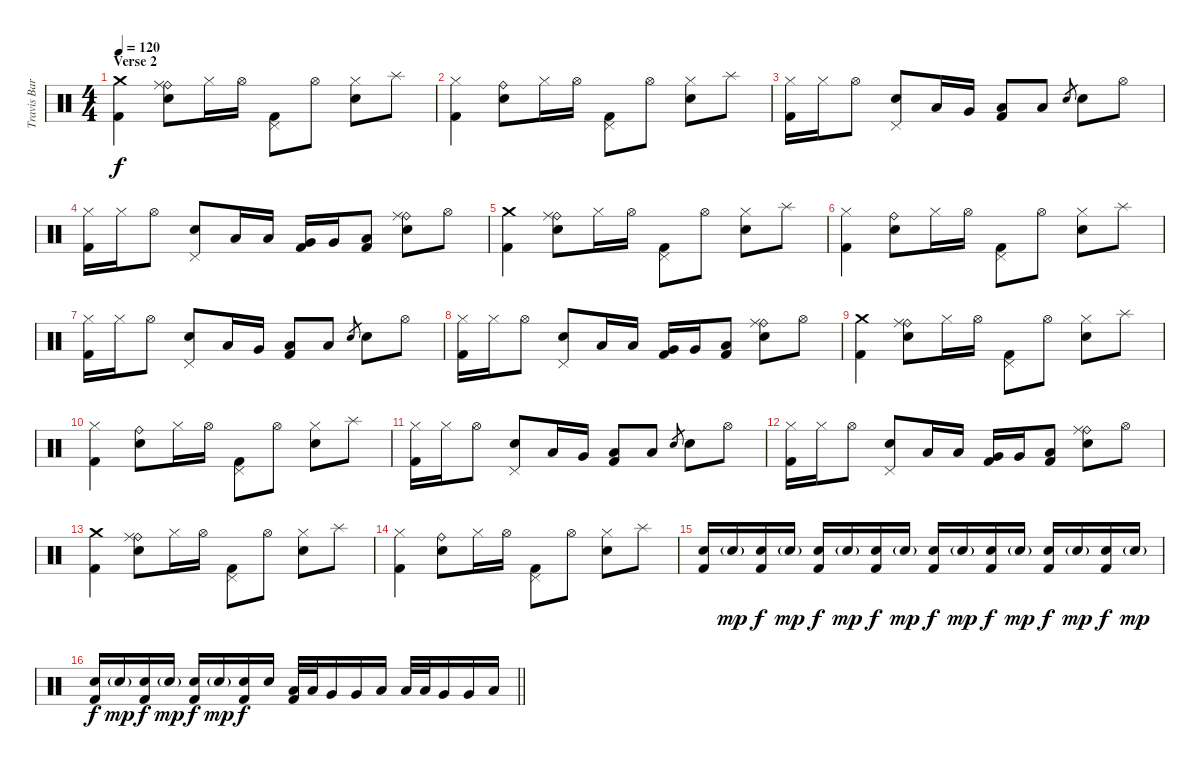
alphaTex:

\track ("Travis Barker - Drums" "Travis Bar") {instrument percussion}
\staff {score}
\articulation defaults
\ts (4 4)
\section ("" "Verse 2")
\tempo 120
\clef neutral
\ks c
("Crash medium (hit)" "Kick (hit) 2").4{dy f} ("Ride (bell)" "Ride (middle)" "Electric Snare (hit)").8 "Hi-Hat (closed)".16 "Hi-Hat (open)".16 ("Pedal Hi-Hat (hit)" "Kick (hit) 2").8 "Hi-Hat (open)".8 ("Hi-Hat (closed)" "Electric Snare (hit)").8 "Splash (hit)".8 |
("Hi-Hat (closed)" "Kick (hit) 2").4 ("Ride (bell)" "Electric Snare (hit)").8 "Hi-Hat (closed)".16 "Hi-Hat (open)".16 ("Pedal Hi-Hat (hit)" "Kick (hit) 2").8 "Hi-Hat (open)".8 ("Hi-Hat (closed)" "Electric Snare (hit)").8 "Splash (hit)".8 |
("Hi-Hat (closed)" "Kick (hit) 2").16 "Hi-Hat (closed)".16 "Hi-Hat (open)".8 ("Pedal Hi-Hat (hit)" "Electric Snare (hit)").8 "Low Tom (hit)".16 "Very Low Tom (hit)".16 ("Low Floor Tom (hit)" "Kick (hit) 2").8 "Low Floor Tom (hit)".8 "Electric Snare (hit)".8{gr} "Electric Snare (hit)".8 "Hi-Hat (open)".8 |
("Hi-Hat (closed)" "Kick (hit) 2").16 "Hi-Hat (closed)".16 "Hi-Hat (open)".8 ("Pedal Hi-Hat (hit)" "Electric Snare (hit)").8 "Low Tom (hit)".16 "Low Tom (hit)".16 ("Very Low Tom (hit)" "Kick (hit) 2").16 "Very Low Tom (hit)".16 ("Low Floor Tom (hit)" "Kick (hit) 2").8 ("Ride (bell)" "Ride (middle)" "Electric Snare (hit)").8 "Hi-Hat (open)".8 |
("Crash medium (hit)" "Kick (hit) 2").4 ("Ride (bell)" "Ride (middle)" "Electric Snare (hit)").8 "Hi-Hat (closed)".16 "Hi-Hat (open)".16 ("Pedal Hi-Hat (hit)" "Kick (hit) 2").8 "Hi-Hat (open)".8 ("Hi-Hat (closed)" "Electric Snare (hit)").8 "Splash (hit)".8 |
("Hi-Hat (closed)" "Kick (hit) 2").4 ("Ride (bell)" "Electric Snare (hit)").8 "Hi-Hat (closed)".16 "Hi-Hat (open)".16 ("Pedal Hi-Hat (hit)" "Kick (hit) 2").8 "Hi-Hat (open)".8 ("Hi-Hat (closed)" "Electric Snare (hit)").8 "Splash (hit)".8 |
("Hi-Hat (closed)" "Kick (hit) 2").16 "Hi-Hat (closed)".16 "Hi-Hat (open)".8 ("Pedal Hi-Hat (hit)" "Electric Snare (hit)").8 "Low Tom (hit)".16 "Very Low Tom (hit)".16 ("Low Floor Tom (hit)" "Kick (hit) 2").8 "Low Floor Tom (hit)".8 "Electric Snare (hit)".8{gr} "Electric Snare (hit)".8 "Hi-Hat (open)".8 |
("Hi-Hat (closed)" "Kick (hit) 2").16 "Hi-Hat (closed)".16 "Hi-Hat (open)".8 ("Pedal Hi-Hat (hit)" "Electric Snare (hit)").8 "Low Tom (hit)".16 "Low Tom (hit)".16 ("Very Low Tom (hit)" "Kick (hit) 2").16 "Very Low Tom (hit)".16 ("Low Floor Tom (hit)" "Kick (hit) 2").8 ("Ride (bell)" "Ride (middle)" "Electric Snare (hit)").8 "Hi-Hat (open)".8 |
("Crash medium (hit)" "Kick (hit) 2").4 ("Ride (bell)" "Ride (middle)" "Electric Snare (hit)").8 "Hi-Hat (closed)".16 "Hi-Hat (open)".16 ("Pedal Hi-Hat (hit)" "Kick (hit) 2").8 "Hi-Hat (open)".8 ("Hi-Hat (closed)" "Electric Snare (hit)").8 "Splash (hit)".8 |
("Hi-Hat (closed)" "Kick (hit) 2").4 ("Ride (bell)" "Electric Snare (hit)").8 "Hi-Hat (closed)".16 "Hi-Hat (open)".16 ("Pedal Hi-Hat (hit)" "Kick (hit) 2").8 "Hi-Hat (open)".8 ("Hi-Hat (closed)" "Electric Snare (hit)").8 "Splash (hit)".8 |
("Hi-Hat (closed)" "Kick (hit) 2").16 "Hi-Hat (closed)".16 "Hi-Hat (open)".8 ("Pedal Hi-Hat (hit)" "Electric Snare (hit)").8 "Low Tom (hit)".16 "Very Low Tom (hit)".16 ("Low Floor Tom (hit)" "Kick (hit) 2").8 "Low Floor Tom (hit)".8 "Electric Snare (hit)".8{gr} "Electric Snare (hit)".8 "Hi-Hat (open)".8 |
("Hi-Hat (closed)" "Kick (hit) 2").16 "Hi-Hat (closed)".16 "Hi-Hat (open)".8 ("Pedal Hi-Hat (hit)" "Electric Snare (hit)").8 "Low Tom (hit)".16 "Low Tom (hit)".16 ("Very Low Tom (hit)" "Kick (hit) 2").16 "Very Low Tom (hit)".16 ("Low Floor Tom (hit)" "Kick (hit) 2").8 ("Ride (bell)" "Ride (middle)" "Electric Snare (hit)").8 "Hi-Hat (open)".8 |
("Crash medium (hit)" "Kick (hit) 2").4 ("Ride (bell)" "Ride (middle)" "Electric Snare (hit)").8 "Hi-Hat (closed)".16 "Hi-Hat (open)".16 ("Pedal Hi-Hat (hit)" "Kick (hit) 2").8 "Hi-Hat (open)".8 ("Hi-Hat (closed)" "Electric Snare (hit)").8 "Splash (hit)".8 |
("Hi-Hat (closed)" "Kick (hit) 2").4 ("Ride (bell)" "Electric Snare (hit)").8 "Hi-Hat (closed)".16 "Hi-Hat (open)".16 ("Pedal Hi-Hat (hit)" "Kick (hit) 2").8 "Hi-Hat (open)".8 ("Hi-Hat (closed)" "Electric Snare (hit)").8 "Splash (hit)".8 |
("Electric Snare (hit)" "Kick (hit) 2").16 "Electric Snare (hit)"{g}.16{dy mp} ("Electric Snare (hit)" "Kick (hit) 2").16{dy f} "Electric Snare (hit)"{g}.16{dy mp} ("Electric Snare (hit)" "Kick (hit) 2").16{dy f} "Electric Snare (hit)"{g}.16{dy mp} ("Electric Snare (hit)" "Kick (hit) 2").16{dy f} "Electric Snare (hit)"{g}.16{dy mp} ("Electric Snare (hit)" "Kick (hit) 2").16{dy f} "Electric Snare (hit)"{g}.16{dy mp} ("Electric Snare (hit)" "Kick (hit) 2").16{dy f} "Electric Snare (hit)"{g}.16{dy mp} ("Electric Snare (hit)" "Kick (hit) 2").16{dy f} "Electric Snare (hit)"{g}.16{dy mp} ("Electric Snare (hit)" "Kick (hit) 2").16{dy f} "Electric Snare (hit)"{g}.16{dy mp} |
\barLineRight lightlight
("Electric Snare (hit)" "Kick (hit) 2").16{dy f} "Electric Snare (hit)"{g}.16{dy mp} ("Electric Snare (hit)" "Kick (hit) 2").16{dy f} "Electric Snare (hit)"{g}.16{dy mp} ("Electric Snare (hit)" "Kick (hit) 2").16{dy f} "Electric Snare (hit)"{g}.16{dy mp} ("Electric Snare (hit)" "Kick (hit) 2").16{dy f} "Electric Snare (hit)".16 ("Low Tom (hit)" "Kick (hit) 2").32 "Low Tom (hit)".32 "Very Low Tom (hit)".16 "Very Low Tom (hit)".16 "Low Floor Tom (hit)".16 "Low Tom (hit)".32 "Low Tom (hit)".32 "Very Low Tom (hit)".16 "Very Low Tom (hit)".16 "Low Floor Tom (hit)".16
